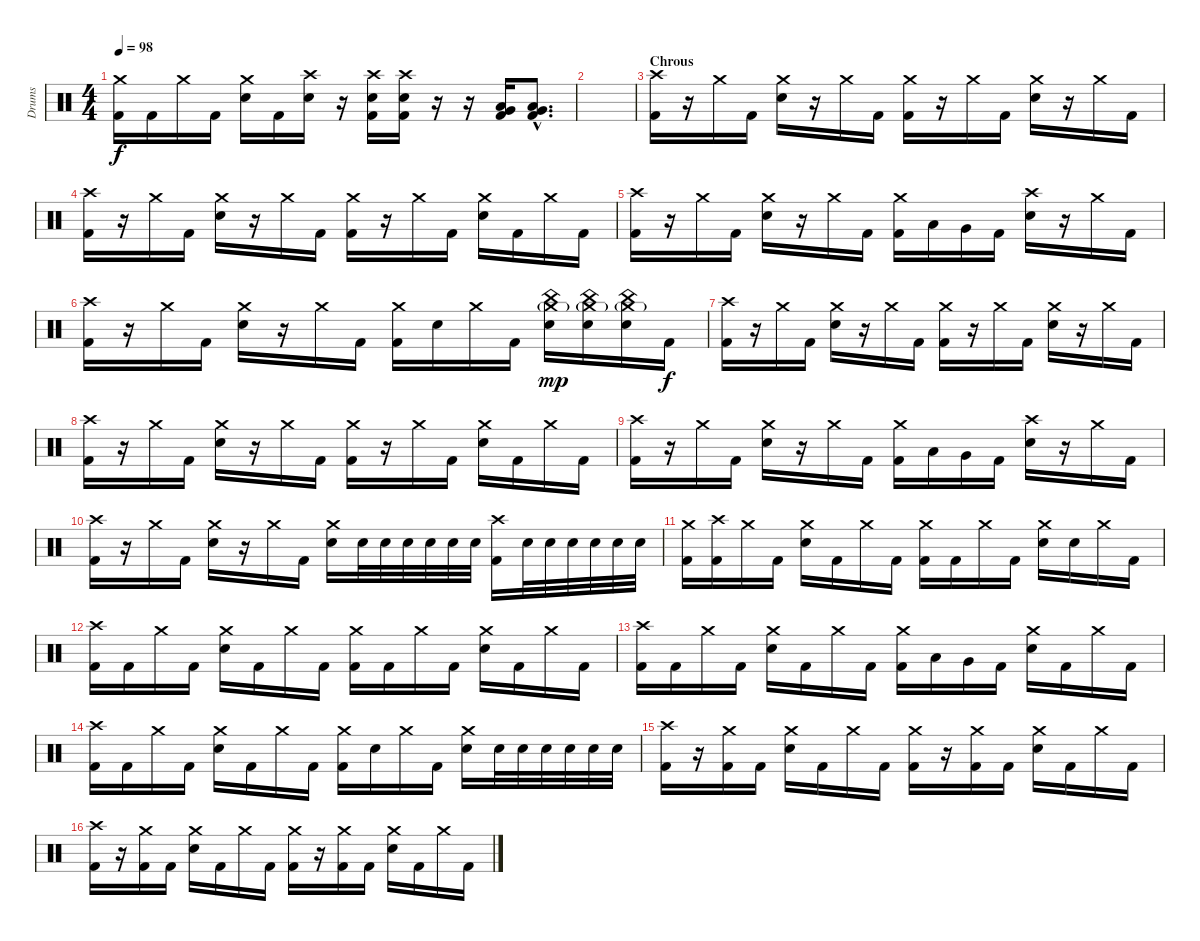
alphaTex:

\track ("Drums" "Drums") {instrument percussion}
\staff {score}
\articulation defaults
\ts (4 4)
\tempo 98
\clef neutral
\ks c
("Crash medium (hit)" "Kick (hit) 2").16{dy f} "Kick (hit) 2".16 "Crash medium (hit)".16 "Kick (hit) 2".16 ("Crash medium (hit)" "Snare (hit) 2").16 "Kick (hit) 2".16 ("Crash high (hit)" "Snare (hit) 2").16 r.16 ("Crash high (hit)" "Snare (hit) 2" "Kick (hit) 2").16 ("Crash high (hit)" "Snare (hit) 2" "Kick (hit) 2").16 r.16 r.16 ("Low Tom (hit)" "Very Low Tom (hit)" "Kick (hit) 2").16 ("Low Tom (hit)"{hac} "Very Low Tom (hit)"{hac} "Kick (hit) 2"{hac}).8{d} |
|
\section ("" "Chrous")
("Crash high (hit)" "Kick (hit) 2").16 r.16 "Crash medium (hit)".16 "Kick (hit) 2".16 ("Crash medium (hit)" "Snare (hit) 2").16 r.16 "Crash medium (hit)".16 "Kick (hit) 2".16 ("Crash medium (hit)" "Kick (hit) 2").16 r.16 "Crash medium (hit)".16 "Kick (hit) 2".16 ("Crash medium (hit)" "Snare (hit) 2").16 r.16 "Crash medium (hit)".16 "Kick (hit) 2".16 |
("Crash high (hit)" "Kick (hit) 2").16 r.16 "Crash medium (hit)".16 "Kick (hit) 2".16 ("Crash medium (hit)" "Snare (hit) 2").16 r.16 "Crash medium (hit)".16 "Kick (hit) 2".16 ("Crash medium (hit)" "Kick (hit) 2").16 r.16 "Crash medium (hit)".16 "Kick (hit) 2".16 ("Crash medium (hit)" "Snare (hit) 2").16 "Kick (hit) 2".16 "Crash medium (hit)".16 "Kick (hit) 2".16 |
("Crash high (hit)" "Kick (hit) 2").16 r.16 "Crash medium (hit)".16 "Kick (hit) 2".16 ("Crash medium (hit)" "Snare (hit) 2").16 r.16 "Crash medium (hit)".16 "Kick (hit) 2".16 ("Crash medium (hit)" "Kick (hit) 2").16 "Low Tom (hit)".16 "Very Low Tom (hit)".16 "Kick (hit) 2".16 ("Crash high (hit)" "Snare (hit) 2").16 r.16 "Crash medium (hit)".16 "Kick (hit) 2".16 |
("Crash high (hit)" "Kick (hit) 2").16 r.16 "Crash medium (hit)".16 "Kick (hit) 2".16 ("Crash medium (hit)" "Snare (hit) 2").16 r.16 "Crash medium (hit)".16 "Kick (hit) 2".16 ("Crash medium (hit)" "Kick (hit) 2").16 "Snare (hit) 2".16 "Crash medium (hit)".16 "Kick (hit) 2".16 ("China (hit)" "Crash medium (hit)"{g} "Snare (hit) 2").16{dy mp} ("China (hit)" "Crash medium (hit)"{g} "Snare (hit) 2").16 ("China (hit)" "Crash medium (hit)"{g} "Snare (hit) 2").16 "Kick (hit) 2".16{dy f} |
("Crash high (hit)" "Kick (hit) 2").16 r.16 "Crash medium (hit)".16 "Kick (hit) 2".16 ("Crash medium (hit)" "Snare (hit) 2").16 r.16 "Crash medium (hit)".16 "Kick (hit) 2".16 ("Crash medium (hit)" "Kick (hit) 2").16 r.16 "Crash medium (hit)".16 "Kick (hit) 2".16 ("Crash medium (hit)" "Snare (hit) 2").16 r.16 "Crash medium (hit)".16 "Kick (hit) 2".16 |
("Crash high (hit)" "Kick (hit) 2").16 r.16 "Crash medium (hit)".16 "Kick (hit) 2".16 ("Crash medium (hit)" "Snare (hit) 2").16 r.16 "Crash medium (hit)".16 "Kick (hit) 2".16 ("Crash medium (hit)" "Kick (hit) 2").16 r.16 "Crash medium (hit)".16 "Kick (hit) 2".16 ("Crash medium (hit)" "Snare (hit) 2").16 "Kick (hit) 2".16 "Crash medium (hit)".16 "Kick (hit) 2".16 |
("Crash high (hit)" "Kick (hit) 2").16 r.16 "Crash medium (hit)".16 "Kick (hit) 2".16 ("Crash medium (hit)" "Snare (hit) 2").16 r.16 "Crash medium (hit)".16 "Kick (hit) 2".16 ("Crash medium (hit)" "Kick (hit) 2").16 "Low Tom (hit)".16 "Very Low Tom (hit)".16 "Kick (hit) 2".16 ("Crash high (hit)" "Snare (hit) 2").16 r.16 "Crash medium (hit)".16 "Kick (hit) 2".16 |
("Crash high (hit)" "Kick (hit) 2").16 r.16 "Crash medium (hit)".16 "Kick (hit) 2".16 ("Crash medium (hit)" "Snare (hit) 2").16 r.16 "Crash medium (hit)".16 "Kick (hit) 2".16 ("Crash medium (hit)" "Snare (hit) 2").16 "Snare (hit) 2".32 "Snare (hit) 2".32 "Snare (hit) 2".32 "Snare (hit) 2".32 "Snare (hit) 2".32 "Snare (hit) 2".32 ("Crash high (hit)" "Kick (hit) 2").16 "Snare (hit) 2".32 "Snare (hit) 2".32 "Snare (hit) 2".32 "Snare (hit) 2".32 "Snare (hit) 2".32 "Snare (hit) 2".32 |
("Crash medium (hit)" "Kick (hit) 2").16 ("Crash high (hit)" "Kick (hit) 2").16 "Crash medium (hit)".16 "Kick (hit) 2".16 ("Crash medium (hit)" "Snare (hit) 2").16 "Kick (hit) 2".16 "Crash medium (hit)".16 "Kick (hit) 2".16 ("Crash medium (hit)" "Kick (hit) 2").16 "Kick (hit) 2".16 "Crash medium (hit)".16 "Kick (hit) 2".16 ("Crash medium (hit)" "Snare (hit) 2").16 "Snare (hit) 2".16 "Crash medium (hit)".16 "Kick (hit) 2".16 |
("Crash high (hit)" "Kick (hit) 2").16 "Kick (hit) 2".16 "Crash medium (hit)".16 "Kick (hit) 2".16 ("Crash medium (hit)" "Snare (hit) 2").16 "Kick (hit) 2".16 "Crash medium (hit)".16 "Kick (hit) 2".16 ("Crash medium (hit)" "Kick (hit) 2").16 "Kick (hit) 2".16 "Crash medium (hit)".16 "Kick (hit) 2".16 ("Crash medium (hit)" "Snare (hit) 2").16 "Kick (hit) 2".16 "Crash medium (hit)".16 "Kick (hit) 2".16 |
("Crash high (hit)" "Kick (hit) 2").16 "Kick (hit) 2".16 "Crash medium (hit)".16 "Kick (hit) 2".16 ("Crash medium (hit)" "Snare (hit) 2").16 "Kick (hit) 2".16 "Crash medium (hit)".16 "Kick (hit) 2".16 ("Crash medium (hit)" "Kick (hit) 2").16 "Low Tom (hit)".16 "Very Low Tom (hit)".16 "Kick (hit) 2".16 ("Crash medium (hit)" "Snare (hit) 2").16 "Kick (hit) 2".16 "Crash medium (hit)".16 "Kick (hit) 2".16 |
("Crash high (hit)" "Kick (hit) 2").16 "Kick (hit) 2".16 "Crash medium (hit)".16 "Kick (hit) 2".16 ("Crash medium (hit)" "Snare (hit) 2").16 "Kick (hit) 2".16 "Crash medium (hit)".16 "Kick (hit) 2".16 ("Crash medium (hit)" "Kick (hit) 2").16 "Snare (hit) 2".16 "Crash medium (hit)".16 "Kick (hit) 2".16 ("Crash medium (hit)" "Snare (hit) 2").16 "Snare (hit) 2".32 "Snare (hit) 2".32 "Snare (hit) 2".32 "Snare (hit) 2".32 "Snare (hit) 2".32 "Snare (hit) 2".32 |
("Crash high (hit)" "Kick (hit) 2").16 r.16 ("Crash medium (hit)" "Kick (hit) 2").16 "Kick (hit) 2".16 ("Crash medium (hit)" "Snare (hit) 2").16 "Kick (hit) 2".16 "Crash medium (hit)".16 "Kick (hit) 2".16 ("Crash medium (hit)" "Kick (hit) 2").16 r.16 ("Crash medium (hit)" "Kick (hit) 2").16 "Kick (hit) 2".16 ("Crash medium (hit)" "Snare (hit) 2").16 "Kick (hit) 2".16 "Crash medium (hit)".16 "Kick (hit) 2".16 |
("Crash high (hit)" "Kick (hit) 2").16 r.16 ("Crash medium (hit)" "Kick (hit) 2").16 "Kick (hit) 2".16 ("Crash medium (hit)" "Snare (hit) 2").16 "Kick (hit) 2".16 "Crash medium (hit)".16 "Kick (hit) 2".16 ("Crash medium (hit)" "Kick (hit) 2").16 r.16 ("Crash medium (hit)" "Kick (hit) 2").16 "Kick (hit) 2".16 ("Crash medium (hit)" "Snare (hit) 2").16 "Kick (hit) 2".16 "Crash medium (hit)".16 "Kick (hit) 2".16
